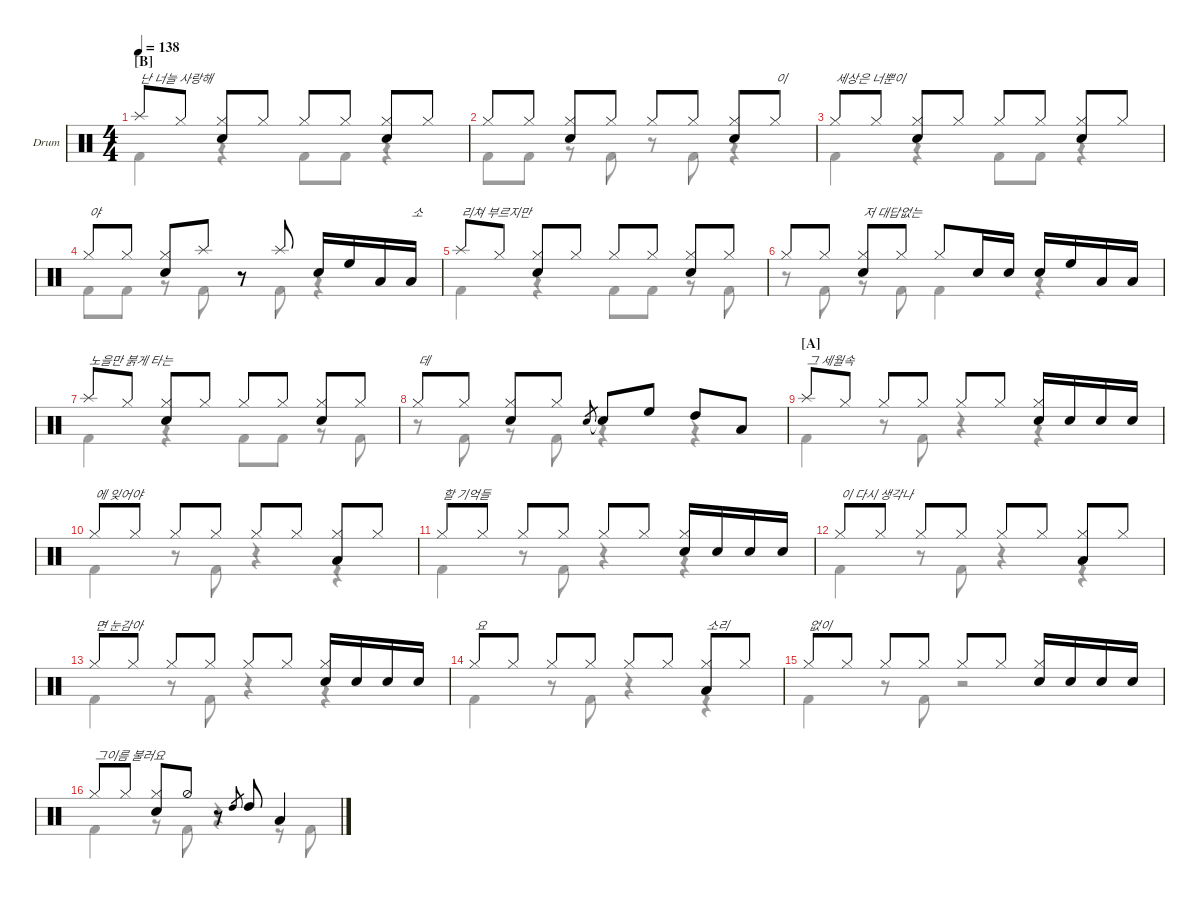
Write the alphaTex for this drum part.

\defaultSystemsLayout 4
\hideDynamics
\bracketExtendMode nobrackets
\firstSystemTrackNameOrientation horizontal
\track ("Drumkit" "Drum") {instrument percussion}
\staff {score}
\articulation defaults
\voice
\ts (4 4)
\section ("B" "")
\tempo 138
\clef neutral
\ks c "Splash (hit)".8{txt "난 너늘 사랑해" dy mf beam Up} "Hi-Hat (closed)".8{beam Up}
("Hi-Hat (closed)" "Snare (hit) 2").8{beam Up} "Hi-Hat (closed)".8{beam Up} "Hi-Hat (closed)".8{beam Up} "Hi-Hat (closed)".8{beam Up} ("Hi-Hat (closed)" "Snare (hit) 2").8{beam Up} "Hi-Hat (closed)".8{beam Up} |
"Hi-Hat (closed)".8{beam Up} "Hi-Hat (closed)".8{beam Up} ("Hi-Hat (closed)" "Snare (hit) 2").8{beam Up} "Hi-Hat (closed)".8{beam Up} "Hi-Hat (closed)".8{beam Up} "Hi-Hat (closed)".8{beam Up} ("Hi-Hat (closed)" "Snare (hit) 2").8{beam Up} "Hi-Hat (closed)".8{txt "이" beam Up} |
"Hi-Hat (closed)".8{txt "세상은 너뿐이" beam Up} "Hi-Hat (closed)".8{beam Up} ("Hi-Hat (closed)" "Snare (hit) 2").8{beam Up} "Hi-Hat (closed)".8{beam Up} "Hi-Hat (closed)".8{beam Up} "Hi-Hat (closed)".8{beam Up} ("Hi-Hat (closed)" "Snare (hit) 2").8{beam Up} "Hi-Hat (closed)".8{beam Up} |
"Hi-Hat (closed)".8{txt "야" beam Up} "Hi-Hat (closed)".8{beam Up} ("Hi-Hat (closed)" "Snare (hit) 2").8{beam Up} "Splash (hit)".8{beam Up} r.8{beam Up} "Splash (hit)".8{beam Up} "Snare (hit) 2".16{beam Up} "High Floor Tom (hit)".16{beam Up} "Low Tom (hit)".16{beam Up} "Low Tom (hit)".16{txt "소" beam Up} |
"Splash (hit)".8{txt "리쳐 부르지만" beam Up} "Hi-Hat (closed)".8{beam Up} ("Hi-Hat (closed)" "Snare (hit) 2").8{beam Up} "Hi-Hat (closed)".8{beam Up} "Hi-Hat (closed)".8{beam Up} "Hi-Hat (closed)".8{beam Up} ("Hi-Hat (closed)" "Snare (hit) 2").8{beam Up} "Hi-Hat (closed)".8{beam Up} |
"Hi-Hat (closed)".8{beam Up} "Hi-Hat (closed)".8{beam Up} ("Hi-Hat (closed)" "Snare (hit) 2").8{txt "저 대답없는" beam Up} "Hi-Hat (closed)".8{beam Up} "Hi-Hat (closed)".8{beam Up} "Snare (hit) 2".16{beam Up} "Snare (hit) 2".16{beam Up} "Snare (hit) 2".16{beam Up} "High Floor Tom (hit)".16{beam Up} "Low Tom (hit)".16{beam Up} "Low Tom (hit)".16{beam Up} |
"Splash (hit)".8{txt "노을만 붉게 타는" beam Up} "Hi-Hat (closed)".8{beam Up} ("Hi-Hat (closed)" "Snare (hit) 2").8{beam Up} "Hi-Hat (closed)".8{beam Up} "Hi-Hat (closed)".8{beam Up} "Hi-Hat (closed)".8{beam Up} ("Hi-Hat (closed)" "Snare (hit) 2").8{beam Up} "Hi-Hat (closed)".8{beam Up} |
"Hi-Hat (closed)".8{txt "데" beam Up} "Hi-Hat (closed)".8{beam Up} ("Hi-Hat (closed)" "Snare (hit) 2").8{beam Up} "Hi-Hat (closed)".8{beam Up} "Snare (hit) 2".8{gr beam Up} "Snare (hit) 2"{t}.8{beam Up} "High Floor Tom (hit)".8{beam Up} "High Tom (hit)".8{beam Up} "Low Tom (hit)".8{beam Up} |
\section ("A" "")
"Splash (hit)".8{txt "그 세월속" beam Up} "Hi-Hat (closed)".8{beam Up} "Hi-Hat (closed)".8{beam Up} "Hi-Hat (closed)".8{beam Up} "Hi-Hat (closed)".8{beam Up} "Hi-Hat (closed)".8{beam Up} ("Hi-Hat (closed)" "Snare (hit) 2").16{beam Up} "Snare (hit) 2".16{beam Up} "Snare (hit) 2".16{beam Up} "Snare (hit) 2".16{beam Up} |
"Hi-Hat (closed)".8{txt "에 잊어야" beam Up} "Hi-Hat (closed)".8{beam Up} "Hi-Hat (closed)".8{beam Up} "Hi-Hat (closed)".8{beam Up} "Hi-Hat (closed)".8{beam Up} "Hi-Hat (closed)".8{beam Up} ("Hi-Hat (closed)" "Low Tom (hit)").8{beam Up} "Hi-Hat (closed)".8{beam Up} |
"Hi-Hat (closed)".8{txt "할 기억들" beam Up} "Hi-Hat (closed)".8{beam Up} "Hi-Hat (closed)".8{beam Up} "Hi-Hat (closed)".8{beam Up} "Hi-Hat (closed)".8{beam Up} "Hi-Hat (closed)".8{beam Up} ("Hi-Hat (closed)" "Snare (hit) 2").16{beam Up} "Snare (hit) 2".16{beam Up} "Snare (hit) 2".16{beam Up} "Snare (hit) 2".16{beam Up} |
"Hi-Hat (closed)".8{txt "이 다시 생각나" beam Up} "Hi-Hat (closed)".8{beam Up} "Hi-Hat (closed)".8{beam Up} "Hi-Hat (closed)".8{beam Up} "Hi-Hat (closed)".8{beam Up} "Hi-Hat (closed)".8{beam Up} ("Hi-Hat (closed)" "Low Tom (hit)").8{beam Up} "Hi-Hat (closed)".8{beam Up} |
"Hi-Hat (closed)".8{txt "면 눈감아" beam Up} "Hi-Hat (closed)".8{beam Up} "Hi-Hat (closed)".8{beam Up} "Hi-Hat (closed)".8{beam Up} "Hi-Hat (closed)".8{beam Up} "Hi-Hat (closed)".8{beam Up} ("Hi-Hat (closed)" "Snare (hit) 2").16{beam Up} "Snare (hit) 2".16{beam Up} "Snare (hit) 2".16{beam Up} "Snare (hit) 2".16{beam Up} |
"Hi-Hat (closed)".8{txt "요 " beam Up} "Hi-Hat (closed)".8{beam Up} "Hi-Hat (closed)".8{beam Up} "Hi-Hat (closed)".8{beam Up} "Hi-Hat (closed)".8{beam Up} "Hi-Hat (closed)".8{beam Up} ("Hi-Hat (closed)" "Low Tom (hit)").8{txt "소리" beam Up} "Hi-Hat (closed)".8{beam Up} |
"Hi-Hat (closed)".8{txt "없이" beam Up} "Hi-Hat (closed)".8{beam Up} "Hi-Hat (closed)".8{beam Up} "Hi-Hat (closed)".8{beam Up} "Hi-Hat (closed)".8{beam Up} "Hi-Hat (closed)".8{beam Up} ("Hi-Hat (closed)" "Snare (hit) 2").16{beam Up} "Snare (hit) 2".16{beam Up} "Snare (hit) 2".16{beam Up} "Snare (hit) 2".16{beam Up} |
"Hi-Hat (closed)".8{txt "그이름 불러요" beam Up} "Hi-Hat (closed)".8{beam Up} ("Hi-Hat (closed)" "Snare (hit) 2").8{beam Up} "Hi-Hat (half)".8{beam Up} r.8{beam Up} "High Tom (hit)".8{gr beam Up} "High Tom (hit)".8{beam Up} "Low Tom (hit)".4{beam Up}
\voice
\clef neutral
\ottava regular
\simile none
\ks c
|
|
|
|
|
|
|
|
|
|
|
|
|
|
|
\voice
\clef neutral
\ottava regular
\simile none
\ks c "Kick (hit) 2".4{dy mf beam Down}
r.4{beam Down} "Kick (hit) 2".8{beam Down} "Kick (hit) 2".8{beam Down} r.4{beam Down} |
"Kick (hit) 2".8{beam Down} "Kick (hit) 2".8{beam Down} r.8{beam Down} "Kick (hit) 2".8{beam Down} r.8{beam Down} "Kick (hit) 2".8{beam Down} r.4{beam Down} |
"Kick (hit) 2".4{beam Down} r.4{beam Down} "Kick (hit) 2".8{beam Down} "Kick (hit) 2".8{beam Down} r.4{beam Down} |
"Kick (hit) 2".8{beam Down} "Kick (hit) 2".8{beam Down} r.8{beam Down} "Kick (hit) 2".8{beam Down} r.8{beam Down} "Kick (hit) 2".8{beam Down} r.4{beam Down} |
"Kick (hit) 2".4{beam Down} r.4{beam Down} "Kick (hit) 2".8{beam Down} "Kick (hit) 2".8{beam Down} r.8{beam Down} "Kick (hit) 2".8{beam Down} |
r.8{beam Down} "Kick (hit) 2".8{beam Down} r.8{beam Down} "Kick (hit) 2".8{beam Down} "Kick (hit) 2".4{beam Down} r.4{beam Down} |
"Kick (hit) 2".4{beam Down} r.4{beam Down} "Kick (hit) 2".8{beam Down} "Kick (hit) 2".8{beam Down} r.8{beam Down} "Kick (hit) 2".8{beam Down} |
r.8{beam Down} "Kick (hit) 2".8{beam Down} r.8{beam Down} "Kick (hit) 2".8{beam Down} r.4{beam Down} r.4{beam Down} |
"Kick (hit) 2".4{beam Down} r.8{beam Down} "Kick (hit) 2".8{beam Down} r.4{beam Down} r.4{beam Down} |
"Kick (hit) 2".4{beam Down} r.8{beam Down} "Kick (hit) 2".8{beam Down} r.4{beam Down} r.4{beam Down} |
"Kick (hit) 2".4{beam Down} r.8{beam Down} "Kick (hit) 2".8{beam Down} r.4{beam Down} r.4{beam Down} |
"Kick (hit) 2".4{beam Down} r.8{beam Down} "Kick (hit) 2".8{beam Down} r.4{beam Down} r.4{beam Down} |
"Kick (hit) 2".4{beam Down} r.8{beam Down} "Kick (hit) 2".8{beam Down} r.4{beam Down} r.4{beam Down} |
"Kick (hit) 2".4{beam Down} r.8{beam Down} "Kick (hit) 2".8{beam Down} r.4{beam Down} r.4{beam Down} |
"Kick (hit) 2".4{beam Down} r.8{beam Down} "Kick (hit) 2".8{beam Down} r.2{beam Down} |
"Kick (hit) 2".4{beam Down} r.8{beam Down} "Kick (hit) 2".8{beam Down} r.4{beam Down} r.8{beam Down} "Kick (hit) 2".8{beam Down}
